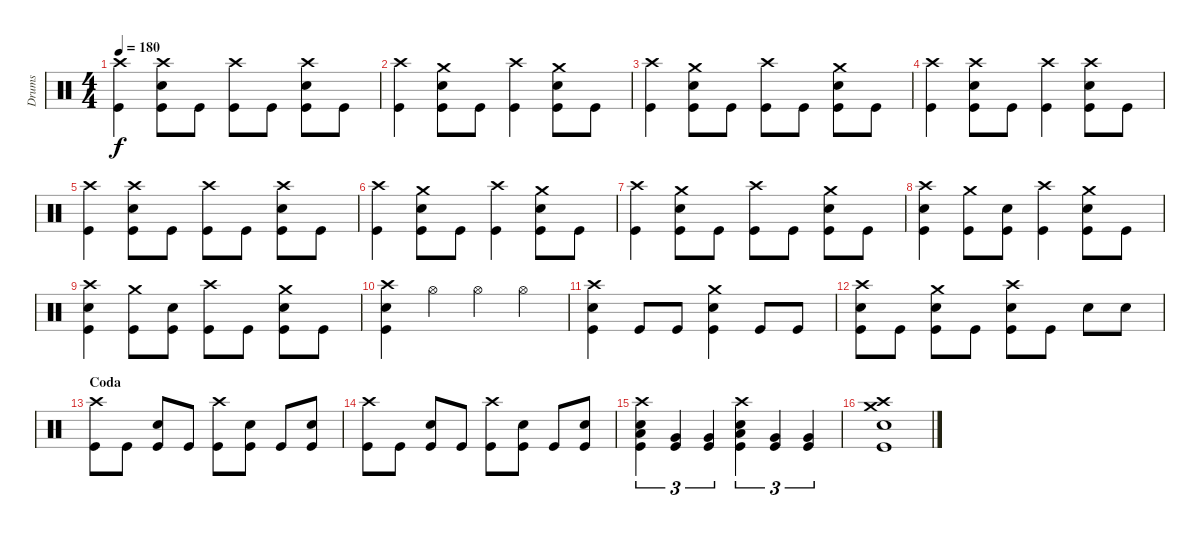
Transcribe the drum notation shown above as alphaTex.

\track ("Drums" "Drums") {instrument percussion}
\staff {score}
\articulation defaults
\ts (4 4)
\tempo 180
\clef neutral
\ks c
("Crash high (hit)" "Kick (hit)").4{dy f} ("Crash high (hit)" "Snare (hit) 2" "Kick (hit)").8 "Kick (hit)".8 ("Crash high (hit)" "Kick (hit)").8 "Kick (hit)".8 ("Crash high (hit)" "Snare (hit) 2" "Kick (hit)").8 "Kick (hit)".8 |
("Crash high (hit)" "Kick (hit)").4 ("Crash medium (hit)" "Snare (hit) 2" "Kick (hit)").8 "Kick (hit)".8 ("Crash high (hit)" "Kick (hit)").4 ("Crash medium (hit)" "Snare (hit) 2" "Kick (hit)").8 "Kick (hit)".8 |
("Crash high (hit)" "Kick (hit)").4 ("Crash medium (hit)" "Snare (hit) 2" "Kick (hit)").8 "Kick (hit)".8 ("Crash high (hit)" "Kick (hit)").8 "Kick (hit)".8 ("Crash medium (hit)" "Snare (hit) 2" "Kick (hit)").8 "Kick (hit)".8 |
("Crash high (hit)" "Kick (hit)").4 ("Crash high (hit)" "Snare (hit) 2" "Kick (hit)").8 "Kick (hit)".8 ("Crash high (hit)" "Kick (hit)").4 ("Crash high (hit)" "Snare (hit) 2" "Kick (hit)").8 "Kick (hit)".8 |
("Crash high (hit)" "Kick (hit)").4 ("Crash high (hit)" "Snare (hit) 2" "Kick (hit)").8 "Kick (hit)".8 ("Crash high (hit)" "Kick (hit)").8 "Kick (hit)".8 ("Crash high (hit)" "Snare (hit) 2" "Kick (hit)").8 "Kick (hit)".8 |
("Crash high (hit)" "Kick (hit)").4 ("Crash medium (hit)" "Snare (hit) 2" "Kick (hit)").8 "Kick (hit)".8 ("Crash high (hit)" "Kick (hit)").4 ("Crash medium (hit)" "Snare (hit) 2" "Kick (hit)").8 "Kick (hit)".8 |
("Crash high (hit)" "Kick (hit)").4 ("Crash medium (hit)" "Snare (hit) 2" "Kick (hit)").8 "Kick (hit)".8 ("Crash high (hit)" "Kick (hit)").8 "Kick (hit)".8 ("Crash medium (hit)" "Snare (hit) 2" "Kick (hit)").8 "Kick (hit)".8 |
("Crash high (hit)" "Snare (hit) 2" "Kick (hit)").4 ("Crash medium (hit)" "Kick (hit)").8 ("Snare (hit) 2" "Kick (hit)").8 ("Crash high (hit)" "Kick (hit)").4 ("Crash medium (hit)" "Snare (hit) 2" "Kick (hit)").8 "Kick (hit)".8 |
("Crash high (hit)" "Snare (hit) 2" "Kick (hit)").4 ("Crash medium (hit)" "Kick (hit)").8 ("Snare (hit) 2" "Kick (hit)").8 ("Crash high (hit)" "Kick (hit)").8 "Kick (hit)".8 ("Crash medium (hit)" "Snare (hit) 2" "Kick (hit)").8 "Kick (hit)".8 |
("Crash high (hit)" "Snare (hit) 2" "Kick (hit)").4 "Hi-Hat (open)".4 "Hi-Hat (open)".4 "Hi-Hat (open)".4 |
("Crash high (hit)" "Snare (hit) 2" "Kick (hit)").4 "Kick (hit)".8 "Kick (hit)".8 ("Crash medium (hit)" "Snare (hit) 2" "Kick (hit)").4 "Kick (hit)".8 "Kick (hit)".8 |
("Crash high (hit)" "Snare (hit) 2" "Kick (hit)").8 "Kick (hit)".8 ("Crash medium (hit)" "Snare (hit) 2" "Kick (hit)").8 "Kick (hit)".8 ("Crash high (hit)" "Snare (hit) 2" "Kick (hit)").8 "Kick (hit)".8 "Snare (hit) 2".8 "Snare (hit) 2".8 |
\section ("" "Coda")
("Crash high (hit)" "Kick (hit)").8 "Kick (hit)".8 ("Snare (hit) 2" "Kick (hit)").8 "Kick (hit)".8 ("Crash high (hit)" "Kick (hit)").8 ("Snare (hit) 2" "Kick (hit)").8 "Kick (hit)".8 ("Snare (hit) 2" "Kick (hit)").8 |
("Crash high (hit)" "Kick (hit)").8 "Kick (hit)".8 ("Snare (hit) 2" "Kick (hit)").8 "Kick (hit)".8 ("Crash high (hit)" "Kick (hit)").8 ("Snare (hit) 2" "Kick (hit)").8 "Kick (hit)".8 ("Snare (hit) 2" "Kick (hit)").8 |
("Crash high (hit)" "Low Tom (hit)" "Snare (hit) 2" "Kick (hit)").4{tu (3 2)} ("Very Low Tom (hit)" "Kick (hit)").4{tu (3 2)} ("Very Low Tom (hit)" "Kick (hit)").4{tu (3 2)} ("Crash high (hit)" "Low Tom (hit)" "Snare (hit) 2" "Kick (hit)").4{tu (3 2)} ("Very Low Tom (hit)" "Kick (hit)").4{tu (3 2)} ("Very Low Tom (hit)" "Kick (hit)").4{tu (3 2)} |
("Crash high (hit)" "Crash medium (hit)" "Snare (hit) 2" "Kick (hit)").1
